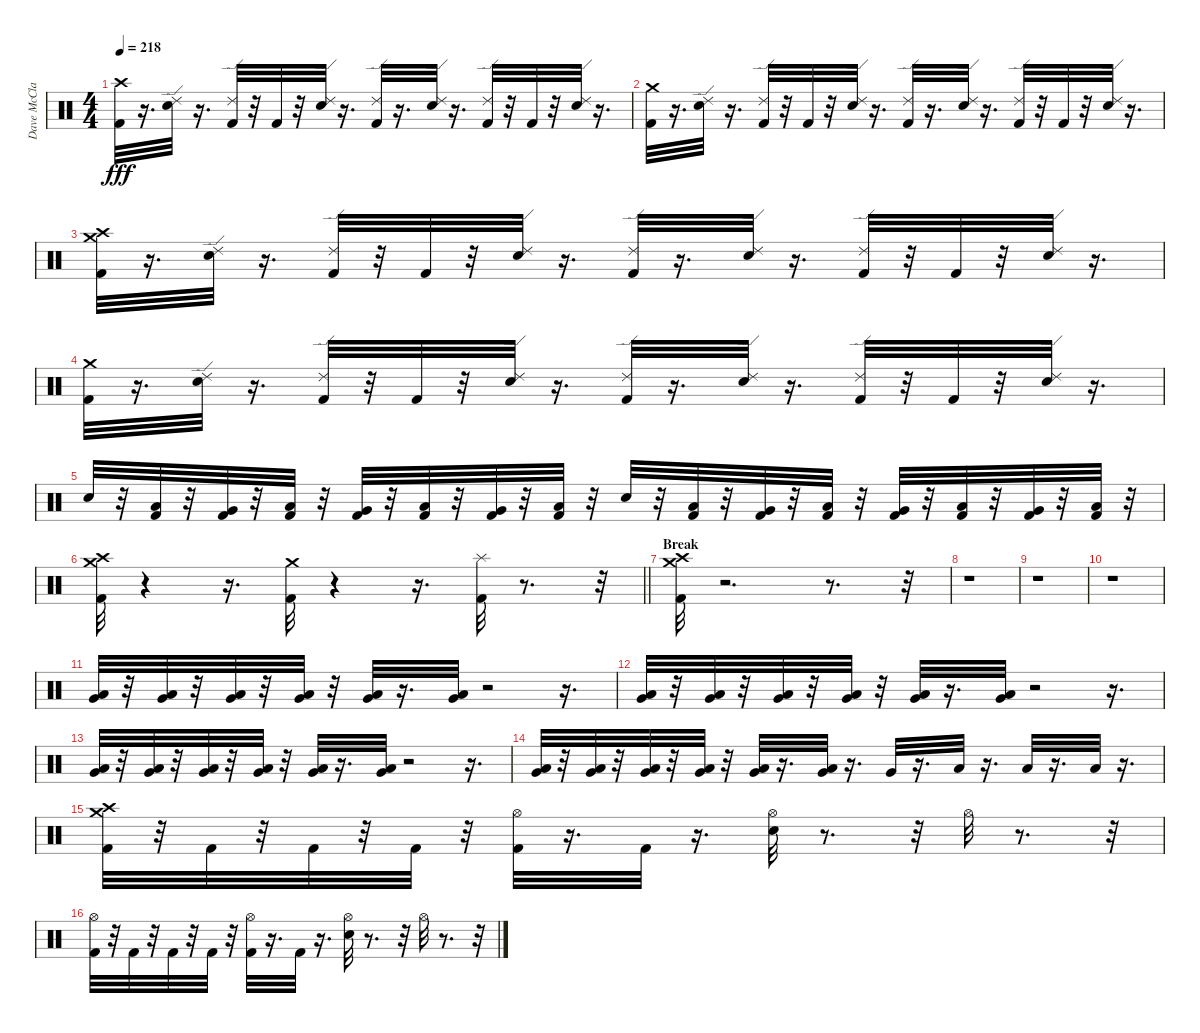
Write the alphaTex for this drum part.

\track ("Dave McClain" "Dave McCla") {instrument percussion}
\staff {score}
\articulation defaults
\ts (4 4)
\tempo 218
\clef neutral
\ks c
("Crash high (hit)" "Kick (hit) 2").32{dy fff} r.16{d} ("Ride (edge) 2" "Snare (hit) 2").32 r.16{d} ("Ride (edge) 2" "Kick (hit) 2").32 r.32 "Kick (hit) 2".32 r.32 ("Ride (edge) 2" "Snare (hit) 2").32 r.16{d} ("Ride (edge) 2" "Kick (hit) 2").32 r.16{d} ("Ride (edge) 2" "Snare (hit) 2").32 r.16{d} ("Ride (edge) 2" "Kick (hit) 2").32 r.32 "Kick (hit) 2".32 r.32 ("Ride (edge) 2" "Snare (hit) 2").32 r.16{d} |
("Crash medium (hit)" "Kick (hit) 2").32 r.16{d} ("Ride (edge) 2" "Snare (hit) 2").32 r.16{d} ("Ride (edge) 2" "Kick (hit) 2").32 r.32 "Kick (hit) 2".32 r.32 ("Ride (edge) 2" "Snare (hit) 2").32 r.16{d} ("Ride (edge) 2" "Kick (hit) 2").32 r.16{d} ("Ride (edge) 2" "Snare (hit) 2").32 r.16{d} ("Ride (edge) 2" "Kick (hit) 2").32 r.32 "Kick (hit) 2".32 r.32 ("Ride (edge) 2" "Snare (hit) 2").32 r.16{d} |
("Kick (hit) 2" "Crash high (hit)" "Crash medium (hit)").32 r.16{d} ("Snare (hit) 2" "Ride (edge) 2").32 r.16{d} ("Kick (hit) 2" "Ride (edge) 2").32 r.32 "Kick (hit) 2".32 r.32 ("Snare (hit) 2" "Ride (edge) 2").32 r.16{d} ("Kick (hit) 2" "Ride (edge) 2").32 r.16{d} ("Snare (hit) 2" "Ride (edge) 2").32 r.16{d} ("Kick (hit) 2" "Ride (edge) 2").32 r.32 "Kick (hit) 2".32 r.32 ("Snare (hit) 2" "Ride (edge) 2").32 r.16{d} |
("Kick (hit) 2" "Crash medium (hit)").32 r.16{d} ("Snare (hit) 2" "Ride (edge) 2").32 r.16{d} ("Kick (hit) 2" "Ride (edge) 2").32 r.32 "Kick (hit) 2".32 r.32 ("Snare (hit) 2" "Ride (edge) 2").32 r.16{d} ("Kick (hit) 2" "Ride (edge) 2").32 r.16{d} ("Snare (hit) 2" "Ride (edge) 2").32 r.16{d} ("Kick (hit) 2" "Ride (edge) 2").32 r.32 "Kick (hit) 2".32 r.32 ("Snare (hit) 2" "Ride (edge) 2").32 r.16{d} |
"Snare (hit) 2".32 r.32 ("Kick (hit) 2" "Low Tom (hit)").32 r.32 ("Kick (hit) 2" "Very Low Tom (hit)").32 r.32 ("Kick (hit) 2" "Low Tom (hit)").32 r.32 ("Kick (hit) 2" "Very Low Tom (hit)").32 r.32 ("Kick (hit) 2" "Low Tom (hit)").32 r.32 ("Kick (hit) 2" "Very Low Tom (hit)").32 r.32 ("Kick (hit) 2" "Low Tom (hit)").32 r.32 "Snare (hit) 2".32 r.32 ("Kick (hit) 2" "Low Tom (hit)").32 r.32 ("Kick (hit) 2" "Very Low Tom (hit)").32 r.32 ("Kick (hit) 2" "Low Tom (hit)").32 r.32 ("Kick (hit) 2" "Very Low Tom (hit)").32 r.32 ("Kick (hit) 2" "Low Tom (hit)").32 r.32 ("Kick (hit) 2" "Very Low Tom (hit)").32 r.32 ("Kick (hit) 2" "Low Tom (hit)").32 r.32 |
\barLineRight lightlight
("Kick (hit) 2" "Crash high (hit)" "Crash medium (hit)").32 r.4 r.16{d} ("Kick (hit) 2" "Crash medium (hit)").32 r.4 r.16{d} ("Kick (hit) 2" "Splash (hit)").32 r.8{d} r.32 |
\section ("" "Break")
("Crash medium (hit)" "Crash high (hit)" "Kick (hit) 2").32 r.2{d} r.8{d} r.32 |
r.1 |
r.1 |
r.1 |
("Very Low Tom (hit)" "Low Tom (hit)").32 r.32 ("Very Low Tom (hit)" "Low Tom (hit)").32 r.32 ("Very Low Tom (hit)" "Low Tom (hit)").32 r.32 ("Very Low Tom (hit)" "Low Tom (hit)").32 r.32 ("Very Low Tom (hit)" "Low Tom (hit)").32 r.16{d} ("Very Low Tom (hit)" "Low Tom (hit)").32 r.2 r.16{d} |
("Very Low Tom (hit)" "Low Tom (hit)").32 r.32 ("Very Low Tom (hit)" "Low Tom (hit)").32 r.32 ("Very Low Tom (hit)" "Low Tom (hit)").32 r.32 ("Very Low Tom (hit)" "Low Tom (hit)").32 r.32 ("Very Low Tom (hit)" "Low Tom (hit)").32 r.16{d} ("Very Low Tom (hit)" "Low Tom (hit)").32 r.2 r.16{d} |
("Very Low Tom (hit)" "Low Tom (hit)").32 r.32 ("Very Low Tom (hit)" "Low Tom (hit)").32 r.32 ("Very Low Tom (hit)" "Low Tom (hit)").32 r.32 ("Very Low Tom (hit)" "Low Tom (hit)").32 r.32 ("Very Low Tom (hit)" "Low Tom (hit)").32 r.16{d} ("Very Low Tom (hit)" "Low Tom (hit)").32 r.2 r.16{d} |
("Very Low Tom (hit)" "Low Tom (hit)").32 r.32 ("Very Low Tom (hit)" "Low Tom (hit)").32 r.32 ("Very Low Tom (hit)" "Low Tom (hit)").32 r.32 ("Very Low Tom (hit)" "Low Tom (hit)").32 r.32 ("Very Low Tom (hit)" "Low Tom (hit)").32 r.16{d} ("Very Low Tom (hit)" "Low Tom (hit)").32 r.16{d} "Very Low Tom (hit)".32 r.16{d} "Low Floor Tom (hit)".32 r.16{d} "Low Floor Tom (hit)".32 r.16{d} "Low Floor Tom (hit)".32 r.16{d} |
("Crash medium (hit)" "Crash high (hit)" "Kick (hit) 2").32 r.32 "Kick (hit) 2".32 r.32 "Kick (hit) 2".32 r.32 "Kick (hit) 2".32 r.32 ("Hi-Hat (open)" "Kick (hit) 2").32 r.16{d} "Kick (hit) 2".32 r.16{d} ("Hi-Hat (open)" "Snare (hit) 2").32 r.8{d} r.32 "Hi-Hat (open)".32 r.8{d} r.32 |
("Kick (hit) 2" "Hi-Hat (open)").32 r.32 "Kick (hit) 2".32 r.32 "Kick (hit) 2".32 r.32 "Kick (hit) 2".32 r.32 ("Kick (hit) 2" "Hi-Hat (open)").32 r.16{d} "Kick (hit) 2".32 r.16{d} ("Snare (hit) 2" "Hi-Hat (open)").32 r.8{d} r.32 "Hi-Hat (open)".32 r.8{d} r.32
